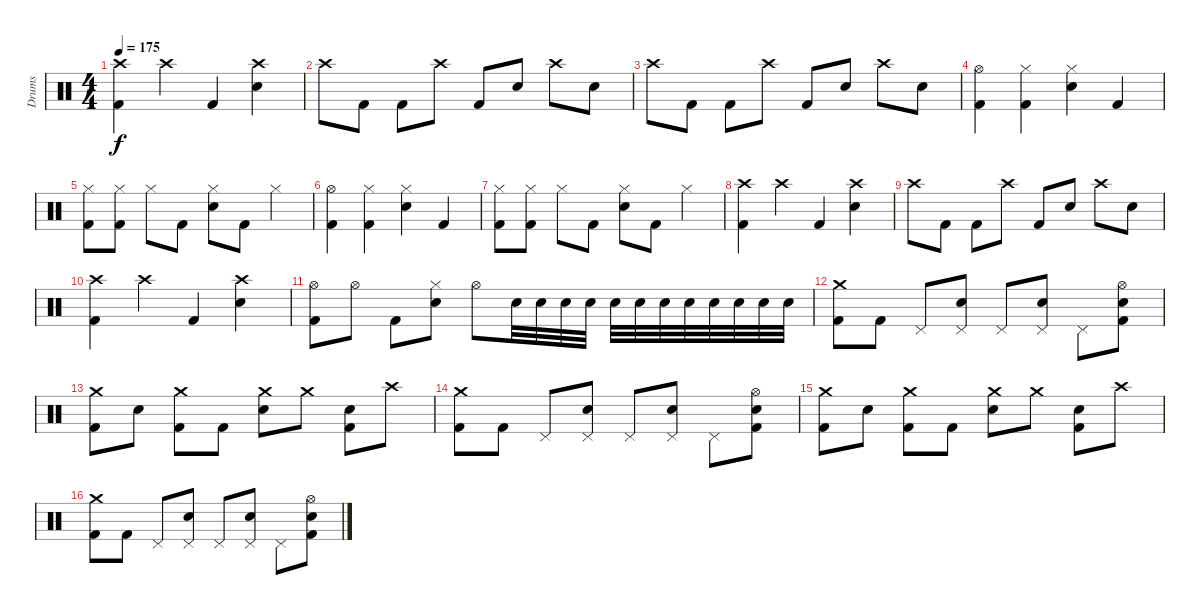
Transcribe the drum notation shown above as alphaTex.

\track ("Drums" "Drums") {instrument percussion}
\staff {score}
\articulation defaults
\ts (4 4)
\tempo 175
\clef neutral
\ks c
("Crash high (hit)" "Kick (hit) 2").4{dy f} "Crash high (hit)".4 "Kick (hit) 2".4 ("Crash high (hit)" "Snare (hit) 2").4 |
"Crash high (hit)".8 "Kick (hit) 2".8 "Kick (hit) 2".8 "Crash high (hit)".8 "Kick (hit) 2".8 "Snare (hit) 2".8 "Crash high (hit)".8 "Snare (hit) 2".8 |
"Crash high (hit)".8 "Kick (hit) 2".8 "Kick (hit) 2".8 "Crash high (hit)".8 "Kick (hit) 2".8 "Snare (hit) 2".8 "Crash high (hit)".8 "Snare (hit) 2".8 |
("Hi-Hat (open)" "Kick (hit) 2").4 ("Hi-Hat (closed)" "Kick (hit) 2").4 ("Hi-Hat (closed)" "Snare (hit) 2").4 "Kick (hit) 2".4 |
("Hi-Hat (closed)" "Kick (hit) 2").8 ("Hi-Hat (closed)" "Kick (hit) 2").8 "Hi-Hat (closed)".8 "Kick (hit) 2".8 ("Hi-Hat (closed)" "Snare (hit) 2").8 "Kick (hit) 2".8 "Hi-Hat (closed)".4 |
("Hi-Hat (open)" "Kick (hit) 2").4 ("Hi-Hat (closed)" "Kick (hit) 2").4 ("Hi-Hat (closed)" "Snare (hit) 2").4 "Kick (hit) 2".4 |
("Hi-Hat (closed)" "Kick (hit) 2").8 ("Hi-Hat (closed)" "Kick (hit) 2").8 "Hi-Hat (closed)".8 "Kick (hit) 2".8 ("Hi-Hat (closed)" "Snare (hit) 2").8 "Kick (hit) 2".8 "Hi-Hat (closed)".4 |
("Crash high (hit)" "Kick (hit) 2").4 "Crash high (hit)".4 "Kick (hit) 2".4 ("Crash high (hit)" "Snare (hit) 2").4 |
"Crash high (hit)".8 "Kick (hit) 2".8 "Kick (hit) 2".8 "Crash high (hit)".8 "Kick (hit) 2".8 "Snare (hit) 2".8 "Crash high (hit)".8 "Snare (hit) 2".8 |
("Crash high (hit)" "Kick (hit) 2").4 "Crash high (hit)".4 "Kick (hit) 2".4 ("Crash high (hit)" "Snare (hit) 2").4 |
("Hi-Hat (open)" "Kick (hit) 2").8 "Hi-Hat (open)".8 "Kick (hit) 2".8 ("Hi-Hat (closed)" "Snare (hit) 2").8 "Hi-Hat (open)".8 "Snare (hit) 2".32 "Snare (hit) 2".32 "Snare (hit) 2".32 "Snare (hit) 2".32 "Snare (hit) 2".32 "Snare (hit) 2".32 "Snare (hit) 2".32 "Snare (hit) 2".32 "Snare (hit) 2".32 "Snare (hit) 2".32 "Snare (hit) 2".32 "Snare (hit) 2".32 |
("Crash medium (hit)" "Kick (hit) 2").8 "Kick (hit) 2".8 "Pedal Hi-Hat (hit)".8 ("Pedal Hi-Hat (hit)" "Snare (hit) 2").8 "Pedal Hi-Hat (hit)".8 ("Pedal Hi-Hat (hit)" "Snare (hit) 2").8 "Pedal Hi-Hat (hit)".8 ("Hi-Hat (open)" "Snare (hit) 2" "Kick (hit) 2").8 |
("Crash medium (hit)" "Kick (hit) 2").8 "Snare (hit) 2".8 ("Crash medium (hit)" "Kick (hit) 2").8 "Kick (hit) 2".8 ("Crash medium (hit)" "Snare (hit) 2").8 "Crash medium (hit)".8 ("Snare (hit) 2" "Kick (hit) 2").8 "Crash high (hit)".8 |
("Crash medium (hit)" "Kick (hit) 2").8 "Kick (hit) 2".8 "Pedal Hi-Hat (hit)".8 ("Pedal Hi-Hat (hit)" "Snare (hit) 2").8 "Pedal Hi-Hat (hit)".8 ("Pedal Hi-Hat (hit)" "Snare (hit) 2").8 "Pedal Hi-Hat (hit)".8 ("Hi-Hat (open)" "Snare (hit) 2" "Kick (hit) 2").8 |
("Crash medium (hit)" "Kick (hit) 2").8 "Snare (hit) 2".8 ("Crash medium (hit)" "Kick (hit) 2").8 "Kick (hit) 2".8 ("Crash medium (hit)" "Snare (hit) 2").8 "Crash medium (hit)".8 ("Snare (hit) 2" "Kick (hit) 2").8 "Crash high (hit)".8 |
("Crash medium (hit)" "Kick (hit) 2").8 "Kick (hit) 2".8 "Pedal Hi-Hat (hit)".8 ("Pedal Hi-Hat (hit)" "Snare (hit) 2").8 "Pedal Hi-Hat (hit)".8 ("Pedal Hi-Hat (hit)" "Snare (hit) 2").8 "Pedal Hi-Hat (hit)".8 ("Hi-Hat (open)" "Snare (hit) 2" "Kick (hit) 2").8
